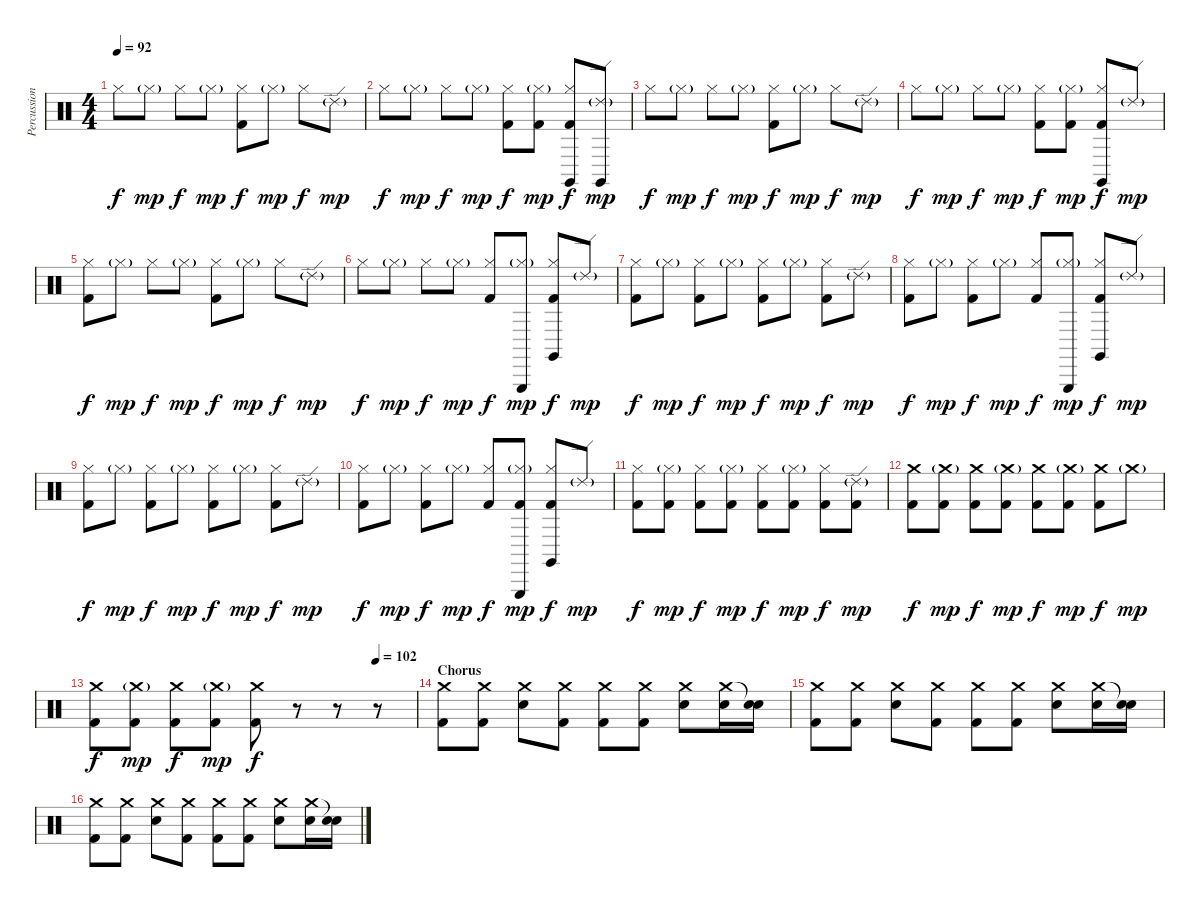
\track ("Percussion" "Percussion") {instrument percussion}
\staff {score}
\articulation defaults
\ts (4 4)
\tempo 92
\clef neutral
\ks c "Hi-Hat (closed)".8{dy f} "Hi-Hat (closed)"{g}.8{dy mp} "Hi-Hat (closed)".8{dy f} "Hi-Hat (closed)"{g}.8{dy mp}
("Hi-Hat (closed)" "Kick (hit) 2").8{dy f} "Hi-Hat (closed)"{g}.8{dy mp} "Hi-Hat (closed)".8{dy f} "Ride (edge) 2"{g}.8{dy mp} |
"Hi-Hat (closed)".8{dy f} "Hi-Hat (closed)"{g}.8{dy mp} "Hi-Hat (closed)".8{dy f} "Hi-Hat (closed)"{g}.8{dy mp} ("Hi-Hat (closed)" "Kick (hit) 2"{tr (36 16)}).8{dy f} ("Hi-Hat (closed)"{g} "Kick (hit) 2").8{dy mp} ("Hi-Hat (closed)" "Claves (hit)" "Kick (hit) 2").8{dy f} ("Ride (edge) 2"{g} "Claves (hit)"{tr (75 16)}).8{dy mp} |
"Hi-Hat (closed)".8{dy f} "Hi-Hat (closed)"{g}.8{dy mp} "Hi-Hat (closed)".8{dy f} "Hi-Hat (closed)"{g}.8{dy mp} ("Hi-Hat (closed)" "Kick (hit) 2").8{dy f} "Hi-Hat (closed)"{g}.8{dy mp} "Hi-Hat (closed)".8{dy f} "Ride (edge) 2"{g}.8{dy mp} |
"Hi-Hat (closed)".8{dy f} "Hi-Hat (closed)"{g}.8{dy mp} "Hi-Hat (closed)".8{dy f} "Hi-Hat (closed)"{g}.8{dy mp} ("Hi-Hat (closed)" "Kick (hit) 2"{tr (36 16)}).8{dy f} ("Hi-Hat (closed)"{g} "Kick (hit) 2").8{dy mp} ("Hi-Hat (closed)" "Claves (hit)"{tr (75 16)} "Kick (hit) 2").8{dy f} "Ride (edge) 2"{g}.8{dy mp} |
("Hi-Hat (closed)" "Kick (hit) 2").8{dy f} "Hi-Hat (closed)"{g}.8{dy mp} "Hi-Hat (closed)".8{dy f} "Hi-Hat (closed)"{g}.8{dy mp} ("Hi-Hat (closed)" "Kick (hit) 2").8{dy f} "Hi-Hat (closed)"{g}.8{dy mp} "Hi-Hat (closed)".8{dy f} "Ride (edge) 2"{g}.8{dy mp} |
"Hi-Hat (closed)".8{dy f} "Hi-Hat (closed)"{g}.8{dy mp} "Hi-Hat (closed)".8{dy f} "Hi-Hat (closed)"{g}.8{dy mp} ("Hi-Hat (closed)" "Kick (hit) 2"{tr (36 16)}).8{dy f} ("Hi-Hat (closed)"{g} "Triangle (hit)").8{dy mp} ("Hi-Hat (closed)" "Claves (hit)"{tr (75 16)} "Kick (hit) 2").8{dy f} "Ride (edge) 2"{g}.8{dy mp} |
("Hi-Hat (closed)" "Kick (hit) 2").8{dy f} "Hi-Hat (closed)"{g}.8{dy mp} ("Hi-Hat (closed)" "Kick (hit) 2").8{dy f} "Hi-Hat (closed)"{g}.8{dy mp} ("Hi-Hat (closed)" "Kick (hit) 2").8{dy f} "Hi-Hat (closed)"{g}.8{dy mp} ("Hi-Hat (closed)" "Kick (hit) 2").8{dy f} "Ride (edge) 2"{g}.8{dy mp} |
("Hi-Hat (closed)" "Kick (hit) 2").8{dy f} "Hi-Hat (closed)"{g}.8{dy mp} ("Hi-Hat (closed)" "Kick (hit) 2").8{dy f} "Hi-Hat (closed)"{g}.8{dy mp} ("Hi-Hat (closed)" "Kick (hit) 2"{tr (36 16)}).8{dy f} ("Hi-Hat (closed)"{g} "Triangle (hit)").8{dy mp} ("Hi-Hat (closed)" "Claves (hit)"{tr (75 16)} "Kick (hit) 2").8{dy f} "Ride (edge) 2"{g}.8{dy mp} |
("Hi-Hat (closed)" "Kick (hit) 2").8{dy f} "Hi-Hat (closed)"{g}.8{dy mp} ("Hi-Hat (closed)" "Kick (hit) 2").8{dy f} "Hi-Hat (closed)"{g}.8{dy mp} ("Hi-Hat (closed)" "Kick (hit) 2").8{dy f} "Hi-Hat (closed)"{g}.8{dy mp} ("Hi-Hat (closed)" "Kick (hit) 2").8{dy f} "Ride (edge) 2"{g}.8{dy mp} |
("Hi-Hat (closed)" "Kick (hit) 2").8{dy f} "Hi-Hat (closed)"{g}.8{dy mp} ("Hi-Hat (closed)" "Kick (hit) 2").8{dy f} "Hi-Hat (closed)"{g}.8{dy mp} ("Hi-Hat (closed)" "Kick (hit) 2"{tr (36 16)}).8{dy f} ("Hi-Hat (closed)"{g} "Triangle (hit)" "Kick (hit) 2").8{dy mp} ("Hi-Hat (closed)" "Claves (hit)"{tr (75 16)} "Kick (hit) 2").8{dy f} "Ride (edge) 2"{g}.8{dy mp} |
("Hi-Hat (closed)" "Kick (hit) 2").8{dy f} ("Hi-Hat (closed)"{g} "Kick (hit) 2").8{dy mp} ("Hi-Hat (closed)" "Kick (hit) 2").8{dy f} ("Hi-Hat (closed)"{g} "Kick (hit) 2").8{dy mp} ("Hi-Hat (closed)" "Kick (hit) 2").8{dy f} ("Hi-Hat (closed)"{g} "Kick (hit) 2").8{dy mp} ("Hi-Hat (closed)" "Kick (hit) 2").8{dy f} ("Ride (edge) 2"{g} "Kick (hit) 2").8{dy mp} |
("Crash medium (hit)" "Kick (hit) 2").8{dy f} ("Crash medium (hit)"{g} "Kick (hit) 2").8{dy mp} ("Crash medium (hit)" "Kick (hit) 2"{tr (36 16)}).8{dy f} ("Crash medium (hit)"{g} "Kick (hit) 2").8{dy mp} ("Crash medium (hit)" "Kick (hit) 2").8{dy f} ("Crash medium (hit)"{g} "Kick (hit) 2").8{dy mp} ("Crash medium (hit)" "Kick (hit) 2"{tr (36 16)}).8{dy f} "Crash medium (hit)"{g}.8{dy mp} |
\tempo (102 0.875)
("Crash medium (hit)" "Kick (hit) 2").8{dy f} ("Crash medium (hit)"{g} "Kick (hit) 2").8{dy mp} ("Crash medium (hit)" "Kick (hit) 2"{tr (36 16)}).8{dy f} ("Crash medium (hit)"{g} "Kick (hit) 2").8{dy mp} ("Crash medium (hit)" "Kick (hit) 2").8{dy f} r.8 r.8 r.8 |
\section ("" "Chorus")
("Crash medium (hit)" "Kick (hit) 2").8 ("Crash medium (hit)" "Kick (hit) 2").8 ("Crash medium (hit)" "Snare (hit) 2").8 ("Crash medium (hit)" "Kick (hit) 2"{tr (36 16)}).8 ("Crash medium (hit)" "Kick (hit) 2").8 ("Crash medium (hit)" "Kick (hit) 2").8 ("Crash medium (hit)" "Snare (hit) 2").8 ("Crash medium (hit)" "Snare (hit) 2").16 ("Snare (hit)"{t} "Snare (hit) 2").16 |
("Crash medium (hit)" "Kick (hit) 2").8 ("Crash medium (hit)" "Kick (hit) 2").8 ("Crash medium (hit)" "Snare (hit) 2").8 ("Crash medium (hit)" "Kick (hit) 2"{tr (36 16)}).8 ("Crash medium (hit)" "Kick (hit) 2").8 ("Crash medium (hit)" "Kick (hit) 2").8 ("Crash medium (hit)" "Snare (hit) 2").8 ("Crash medium (hit)" "Snare (hit) 2").16 ("Snare (hit)"{t} "Snare (hit) 2").16 |
("Crash medium (hit)" "Kick (hit) 2").8 ("Crash medium (hit)" "Kick (hit) 2").8 ("Crash medium (hit)" "Snare (hit) 2").8 ("Crash medium (hit)" "Kick (hit) 2"{tr (36 16)}).8 ("Crash medium (hit)" "Kick (hit) 2").8 ("Crash medium (hit)" "Kick (hit) 2").8 ("Crash medium (hit)" "Snare (hit) 2").8 ("Crash medium (hit)" "Snare (hit) 2").16 ("Snare (hit)"{t} "Snare (hit) 2").16
